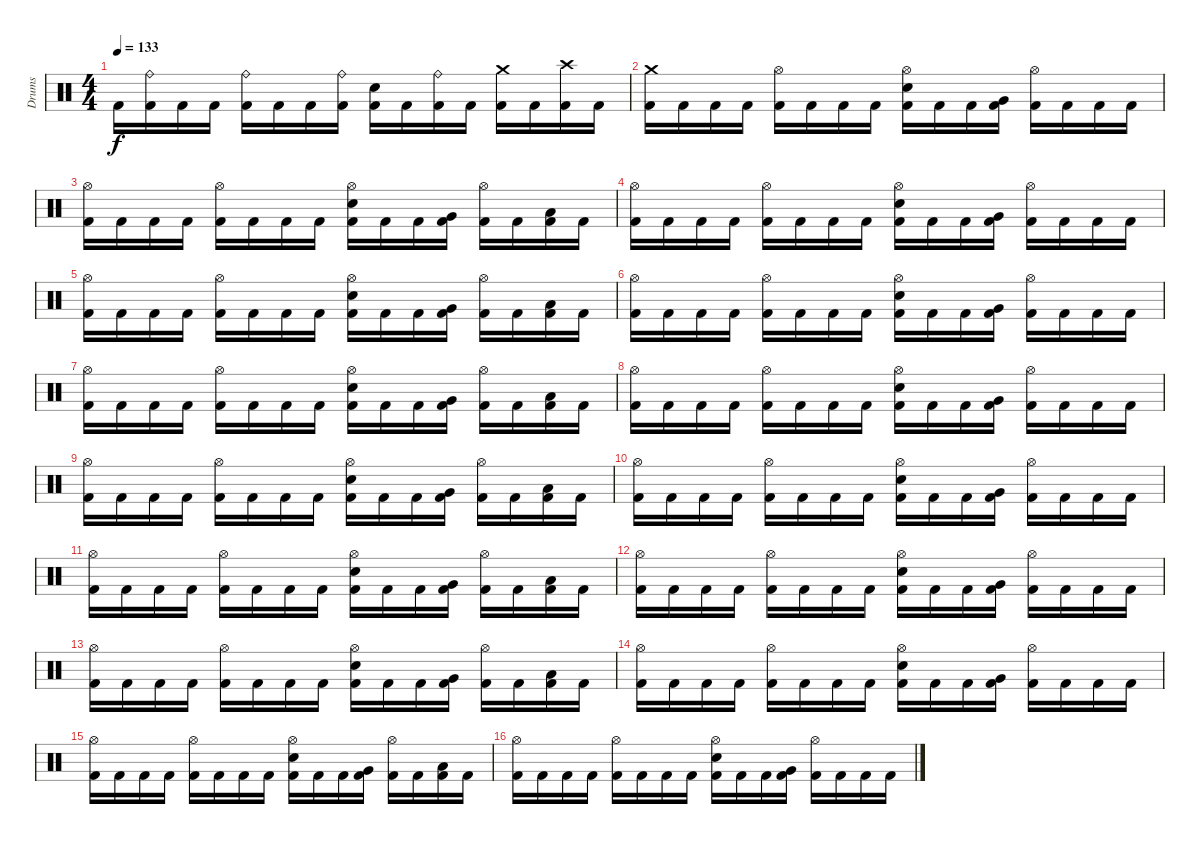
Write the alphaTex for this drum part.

\track ("Drums" "Drums") {instrument percussion}
\staff {score}
\articulation defaults
\ts (4 4)
\tempo 133
\clef neutral
\ks c "Kick (hit) 2".16{dy f}
("Ride (bell)" "Kick (hit) 2").16 "Kick (hit) 2".16 "Kick (hit) 2".16 ("Ride (bell)" "Kick (hit) 2").16 "Kick (hit) 2".16 "Kick (hit) 2".16 ("Ride (bell)" "Kick (hit) 2").16 ("Electric Snare (hit)" "Kick (hit) 2").16 "Kick (hit) 2".16 ("Ride (bell)" "Kick (hit) 2").16 "Kick (hit) 2".16 ("Crash medium (hit)" "Kick (hit) 2").16 "Kick (hit) 2".16 ("Crash high (hit)" "Kick (hit) 2").16 "Kick (hit) 2".16 |
\section ("" "")
("Crash medium (hit)" "Kick (hit) 2").16 "Kick (hit) 2".16 "Kick (hit) 2".16 "Kick (hit) 2".16 ("Hi-Hat (open)" "Kick (hit) 2").16 "Kick (hit) 2".16 "Kick (hit) 2".16 "Kick (hit) 2".16 ("Hi-Hat (open)" "Electric Snare (hit)" "Kick (hit) 2").16 "Kick (hit) 2".16 "Kick (hit) 2".16 ("Very Low Tom (hit)" "Kick (hit) 2").16 ("Hi-Hat (open)" "Kick (hit) 2").16 "Kick (hit) 2".16 "Kick (hit) 2".16 "Kick (hit) 2".16 |
("Hi-Hat (open)" "Kick (hit) 2").16 "Kick (hit) 2".16 "Kick (hit) 2".16 "Kick (hit) 2".16 ("Hi-Hat (open)" "Kick (hit) 2").16 "Kick (hit) 2".16 "Kick (hit) 2".16 "Kick (hit) 2".16 ("Hi-Hat (open)" "Electric Snare (hit)" "Kick (hit) 2").16 "Kick (hit) 2".16 "Kick (hit) 2".16 ("Very Low Tom (hit)" "Kick (hit) 2").16 ("Hi-Hat (open)" "Kick (hit) 2").16 "Kick (hit) 2".16 ("Low Floor Tom (hit)" "Kick (hit) 2").16 "Kick (hit) 2".16 |
("Hi-Hat (open)" "Kick (hit) 2").16 "Kick (hit) 2".16 "Kick (hit) 2".16 "Kick (hit) 2".16 ("Hi-Hat (open)" "Kick (hit) 2").16 "Kick (hit) 2".16 "Kick (hit) 2".16 "Kick (hit) 2".16 ("Hi-Hat (open)" "Electric Snare (hit)" "Kick (hit) 2").16 "Kick (hit) 2".16 "Kick (hit) 2".16 ("Very Low Tom (hit)" "Kick (hit) 2").16 ("Hi-Hat (open)" "Kick (hit) 2").16 "Kick (hit) 2".16 "Kick (hit) 2".16 "Kick (hit) 2".16 |
("Hi-Hat (open)" "Kick (hit) 2").16 "Kick (hit) 2".16 "Kick (hit) 2".16 "Kick (hit) 2".16 ("Hi-Hat (open)" "Kick (hit) 2").16 "Kick (hit) 2".16 "Kick (hit) 2".16 "Kick (hit) 2".16 ("Hi-Hat (open)" "Electric Snare (hit)" "Kick (hit) 2").16 "Kick (hit) 2".16 "Kick (hit) 2".16 ("Very Low Tom (hit)" "Kick (hit) 2").16 ("Hi-Hat (open)" "Kick (hit) 2").16 "Kick (hit) 2".16 ("Low Floor Tom (hit)" "Kick (hit) 2").16 "Kick (hit) 2".16 |
("Hi-Hat (open)" "Kick (hit) 2").16 "Kick (hit) 2".16 "Kick (hit) 2".16 "Kick (hit) 2".16 ("Hi-Hat (open)" "Kick (hit) 2").16 "Kick (hit) 2".16 "Kick (hit) 2".16 "Kick (hit) 2".16 ("Hi-Hat (open)" "Electric Snare (hit)" "Kick (hit) 2").16 "Kick (hit) 2".16 "Kick (hit) 2".16 ("Very Low Tom (hit)" "Kick (hit) 2").16 ("Hi-Hat (open)" "Kick (hit) 2").16 "Kick (hit) 2".16 "Kick (hit) 2".16 "Kick (hit) 2".16 |
("Hi-Hat (open)" "Kick (hit) 2").16 "Kick (hit) 2".16 "Kick (hit) 2".16 "Kick (hit) 2".16 ("Hi-Hat (open)" "Kick (hit) 2").16 "Kick (hit) 2".16 "Kick (hit) 2".16 "Kick (hit) 2".16 ("Hi-Hat (open)" "Electric Snare (hit)" "Kick (hit) 2").16 "Kick (hit) 2".16 "Kick (hit) 2".16 ("Very Low Tom (hit)" "Kick (hit) 2").16 ("Hi-Hat (open)" "Kick (hit) 2").16 "Kick (hit) 2".16 ("Low Floor Tom (hit)" "Kick (hit) 2").16 "Kick (hit) 2".16 |
("Hi-Hat (open)" "Kick (hit) 2").16 "Kick (hit) 2".16 "Kick (hit) 2".16 "Kick (hit) 2".16 ("Hi-Hat (open)" "Kick (hit) 2").16 "Kick (hit) 2".16 "Kick (hit) 2".16 "Kick (hit) 2".16 ("Hi-Hat (open)" "Electric Snare (hit)" "Kick (hit) 2").16 "Kick (hit) 2".16 "Kick (hit) 2".16 ("Very Low Tom (hit)" "Kick (hit) 2").16 ("Hi-Hat (open)" "Kick (hit) 2").16 "Kick (hit) 2".16 "Kick (hit) 2".16 "Kick (hit) 2".16 |
("Hi-Hat (open)" "Kick (hit) 2").16 "Kick (hit) 2".16 "Kick (hit) 2".16 "Kick (hit) 2".16 ("Hi-Hat (open)" "Kick (hit) 2").16 "Kick (hit) 2".16 "Kick (hit) 2".16 "Kick (hit) 2".16 ("Hi-Hat (open)" "Electric Snare (hit)" "Kick (hit) 2").16 "Kick (hit) 2".16 "Kick (hit) 2".16 ("Very Low Tom (hit)" "Kick (hit) 2").16 ("Hi-Hat (open)" "Kick (hit) 2").16 "Kick (hit) 2".16 ("Low Floor Tom (hit)" "Kick (hit) 2").16 "Kick (hit) 2".16 |
("Hi-Hat (open)" "Kick (hit) 2").16 "Kick (hit) 2".16 "Kick (hit) 2".16 "Kick (hit) 2".16 ("Hi-Hat (open)" "Kick (hit) 2").16 "Kick (hit) 2".16 "Kick (hit) 2".16 "Kick (hit) 2".16 ("Hi-Hat (open)" "Electric Snare (hit)" "Kick (hit) 2").16 "Kick (hit) 2".16 "Kick (hit) 2".16 ("Very Low Tom (hit)" "Kick (hit) 2").16 ("Hi-Hat (open)" "Kick (hit) 2").16 "Kick (hit) 2".16 "Kick (hit) 2".16 "Kick (hit) 2".16 |
("Hi-Hat (open)" "Kick (hit) 2").16 "Kick (hit) 2".16 "Kick (hit) 2".16 "Kick (hit) 2".16 ("Hi-Hat (open)" "Kick (hit) 2").16 "Kick (hit) 2".16 "Kick (hit) 2".16 "Kick (hit) 2".16 ("Hi-Hat (open)" "Electric Snare (hit)" "Kick (hit) 2").16 "Kick (hit) 2".16 "Kick (hit) 2".16 ("Very Low Tom (hit)" "Kick (hit) 2").16 ("Hi-Hat (open)" "Kick (hit) 2").16 "Kick (hit) 2".16 ("Low Floor Tom (hit)" "Kick (hit) 2").16 "Kick (hit) 2".16 |
("Hi-Hat (open)" "Kick (hit) 2").16 "Kick (hit) 2".16 "Kick (hit) 2".16 "Kick (hit) 2".16 ("Hi-Hat (open)" "Kick (hit) 2").16 "Kick (hit) 2".16 "Kick (hit) 2".16 "Kick (hit) 2".16 ("Hi-Hat (open)" "Electric Snare (hit)" "Kick (hit) 2").16 "Kick (hit) 2".16 "Kick (hit) 2".16 ("Very Low Tom (hit)" "Kick (hit) 2").16 ("Hi-Hat (open)" "Kick (hit) 2").16 "Kick (hit) 2".16 "Kick (hit) 2".16 "Kick (hit) 2".16 |
("Hi-Hat (open)" "Kick (hit) 2").16 "Kick (hit) 2".16 "Kick (hit) 2".16 "Kick (hit) 2".16 ("Hi-Hat (open)" "Kick (hit) 2").16 "Kick (hit) 2".16 "Kick (hit) 2".16 "Kick (hit) 2".16 ("Hi-Hat (open)" "Electric Snare (hit)" "Kick (hit) 2").16 "Kick (hit) 2".16 "Kick (hit) 2".16 ("Very Low Tom (hit)" "Kick (hit) 2").16 ("Hi-Hat (open)" "Kick (hit) 2").16 "Kick (hit) 2".16 ("Low Floor Tom (hit)" "Kick (hit) 2").16 "Kick (hit) 2".16 |
\section ("" "")
("Hi-Hat (open)" "Kick (hit) 2").16 "Kick (hit) 2".16 "Kick (hit) 2".16 "Kick (hit) 2".16 ("Hi-Hat (open)" "Kick (hit) 2").16 "Kick (hit) 2".16 "Kick (hit) 2".16 "Kick (hit) 2".16 ("Hi-Hat (open)" "Electric Snare (hit)" "Kick (hit) 2").16 "Kick (hit) 2".16 "Kick (hit) 2".16 ("Very Low Tom (hit)" "Kick (hit) 2").16 ("Hi-Hat (open)" "Kick (hit) 2").16 "Kick (hit) 2".16 "Kick (hit) 2".16 "Kick (hit) 2".16 |
("Hi-Hat (open)" "Kick (hit) 2").16 "Kick (hit) 2".16 "Kick (hit) 2".16 "Kick (hit) 2".16 ("Hi-Hat (open)" "Kick (hit) 2").16 "Kick (hit) 2".16 "Kick (hit) 2".16 "Kick (hit) 2".16 ("Hi-Hat (open)" "Electric Snare (hit)" "Kick (hit) 2").16 "Kick (hit) 2".16 "Kick (hit) 2".16 ("Very Low Tom (hit)" "Kick (hit) 2").16 ("Hi-Hat (open)" "Kick (hit) 2").16 "Kick (hit) 2".16 ("Low Floor Tom (hit)" "Kick (hit) 2").16 "Kick (hit) 2".16 |
("Hi-Hat (open)" "Kick (hit) 2").16 "Kick (hit) 2".16 "Kick (hit) 2".16 "Kick (hit) 2".16 ("Hi-Hat (open)" "Kick (hit) 2").16 "Kick (hit) 2".16 "Kick (hit) 2".16 "Kick (hit) 2".16 ("Hi-Hat (open)" "Electric Snare (hit)" "Kick (hit) 2").16 "Kick (hit) 2".16 "Kick (hit) 2".16 ("Very Low Tom (hit)" "Kick (hit) 2").16 ("Hi-Hat (open)" "Kick (hit) 2").16 "Kick (hit) 2".16 "Kick (hit) 2".16 "Kick (hit) 2".16
